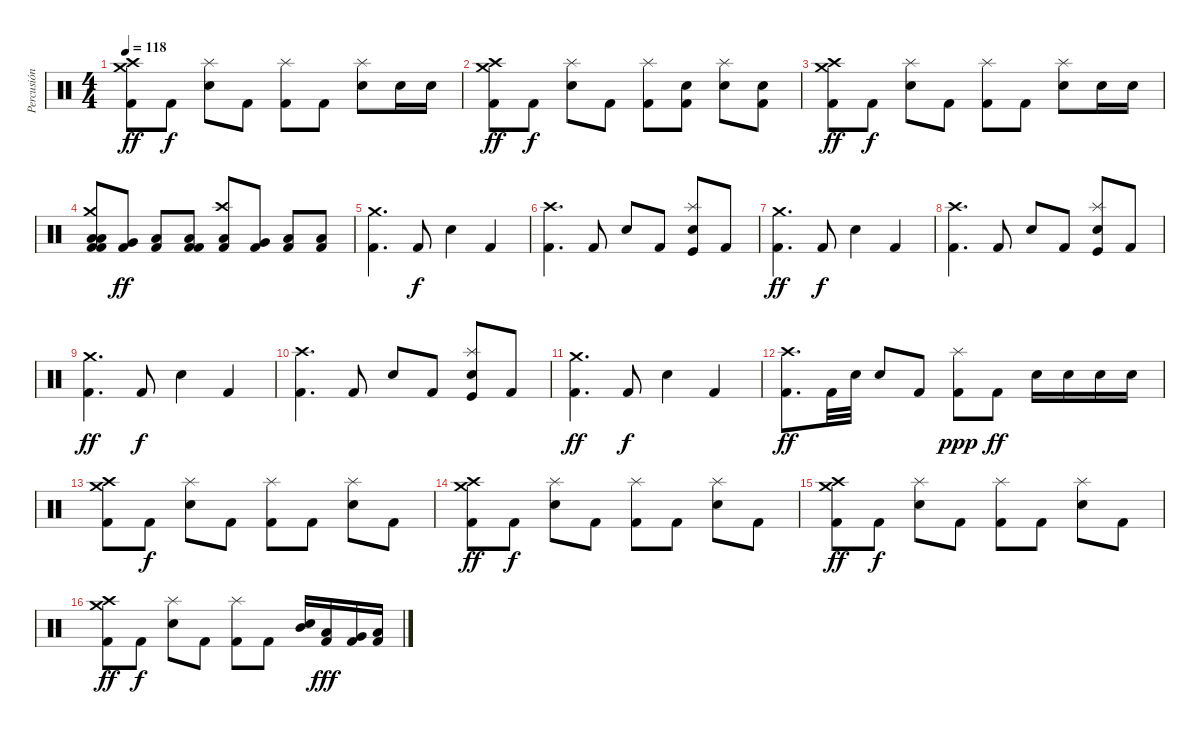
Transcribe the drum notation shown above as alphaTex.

\track ("Percusión" "Percusión") {instrument percussion}
\staff {score}
\articulation defaults
\ts (4 4)
\tempo 118
\clef neutral
\ks c
("Kick (hit) 2" "Crash medium (hit)" "Crash high (hit)").8{dy ff} "Kick (hit) 2".8{dy f} ("Snare (hit) 2" "Splash (hit)").8 "Kick (hit) 2".8 ("Kick (hit) 2" "Splash (hit)").8 "Kick (hit) 2".8 ("Snare (hit) 2" "Splash (hit)").8 "Snare (hit) 2".16 "Snare (hit) 2".16 |
("Kick (hit) 2" "Crash medium (hit)" "Crash high (hit)").8{dy ff} "Kick (hit) 2".8{dy f} ("Snare (hit) 2" "Splash (hit)").8 "Kick (hit) 2".8 ("Kick (hit) 2" "Splash (hit)").8 ("Kick (hit) 2" "Snare (hit) 2").8 ("Snare (hit) 2" "Splash (hit)").8 ("Kick (hit) 2" "Snare (hit) 2").8 |
("Kick (hit) 2" "Crash medium (hit)" "Crash high (hit)").8{dy ff} "Kick (hit) 2".8{dy f} ("Snare (hit) 2" "Splash (hit)").8 "Kick (hit) 2".8 ("Kick (hit) 2" "Splash (hit)").8 "Kick (hit) 2".8 ("Snare (hit) 2" "Splash (hit)").8 "Snare (hit) 2".16 "Snare (hit) 2".16 |
("Low Tom (hit)" "Kick (hit) 2" "Low Tom (hit)" "Crash medium (hit)" "Kick (hit) 2").8 ("Very Low Tom (hit)" "Kick (hit) 2").8{dy ff} ("Low Floor Tom (hit)" "Kick (hit) 2").8 ("Low Floor Tom (hit)" "Kick (hit) 2" "Kick (hit) 2").8 ("Low Tom (hit)" "Crash high (hit)" "Kick (hit) 2").8 ("Very Low Tom (hit)" "Kick (hit) 2").8 ("Low Floor Tom (hit)" "Kick (hit) 2").8 ("Low Floor Tom (hit)" "Kick (hit) 2").8 |
("Kick (hit) 2" "Crash medium (hit)").4{d} "Kick (hit) 2".8{dy f} "Snare (hit) 2".4 "Kick (hit) 2".4 |
("Kick (hit) 2" "Crash high (hit)").4{d} "Kick (hit) 2".8 "Snare (hit) 2".8 "Kick (hit) 2".8 ("Snare (hit) 2" "Kick (hit)" "Splash (hit)").8 "Kick (hit) 2".8 |
("Kick (hit) 2" "Crash medium (hit)").4{d dy ff} "Kick (hit) 2".8{dy f} "Snare (hit) 2".4 "Kick (hit) 2".4 |
("Kick (hit) 2" "Crash high (hit)").4{d} "Kick (hit) 2".8 "Snare (hit) 2".8 "Kick (hit) 2".8 ("Snare (hit) 2" "Kick (hit)" "Splash (hit)").8 "Kick (hit) 2".8 |
("Kick (hit) 2" "Crash medium (hit)").4{d dy ff} "Kick (hit) 2".8{dy f} "Snare (hit) 2".4 "Kick (hit) 2".4 |
("Kick (hit) 2" "Crash high (hit)").4{d} "Kick (hit) 2".8 "Snare (hit) 2".8 "Kick (hit) 2".8 ("Snare (hit) 2" "Kick (hit)" "Splash (hit)").8 "Kick (hit) 2".8 |
("Kick (hit) 2" "Crash medium (hit)").4{d dy ff} "Kick (hit) 2".8{dy f} "Snare (hit) 2".4 "Kick (hit) 2".4 |
("Kick (hit) 2" "Crash high (hit)").8{d dy ff} "Kick (hit) 2".32 "Snare (hit) 2".32 "Snare (hit) 2".8 "Kick (hit) 2".8 ("Kick (hit) 2" "Splash (hit)").8{dy ppp} "Kick (hit) 2".8{dy ff} "Snare (hit) 2".16 "Snare (hit) 2".16 "Snare (hit) 2".16 "Snare (hit) 2".16 |
("Kick (hit) 2" "Crash medium (hit)" "Crash high (hit)").8 "Kick (hit) 2".8{dy f} ("Snare (hit) 2" "Splash (hit)").8 "Kick (hit) 2".8 ("Kick (hit) 2" "Splash (hit)").8 "Kick (hit) 2".8 ("Snare (hit) 2" "Splash (hit)").8 "Kick (hit) 2".8 |
("Kick (hit) 2" "Crash medium (hit)" "Crash high (hit)").8{dy ff} "Kick (hit) 2".8{dy f} ("Snare (hit) 2" "Splash (hit)").8 "Kick (hit) 2".8 ("Kick (hit) 2" "Splash (hit)").8 "Kick (hit) 2".8 ("Snare (hit) 2" "Splash (hit)").8 "Kick (hit) 2".8 |
("Kick (hit) 2" "Crash medium (hit)" "Crash high (hit)").8{dy ff} "Kick (hit) 2".8{dy f} ("Snare (hit) 2" "Splash (hit)").8 "Kick (hit) 2".8 ("Kick (hit) 2" "Splash (hit)").8 "Kick (hit) 2".8 ("Snare (hit) 2" "Splash (hit)").8 "Kick (hit) 2".8 |
("Kick (hit) 2" "Crash medium (hit)" "Crash high (hit)").8{dy ff} "Kick (hit) 2".8{dy f} ("Snare (hit) 2" "Splash (hit)").8 "Kick (hit) 2".8 ("Kick (hit) 2" "Splash (hit)").8 "Kick (hit) 2".8 ("Snare (hit) 2" "Mid Tom (hit)").16 ("Low Tom (hit)" "Kick (hit) 2").16{dy fff} ("Very Low Tom (hit)" "Kick (hit) 2").16 ("Low Floor Tom (hit)" "Kick (hit) 2").16
